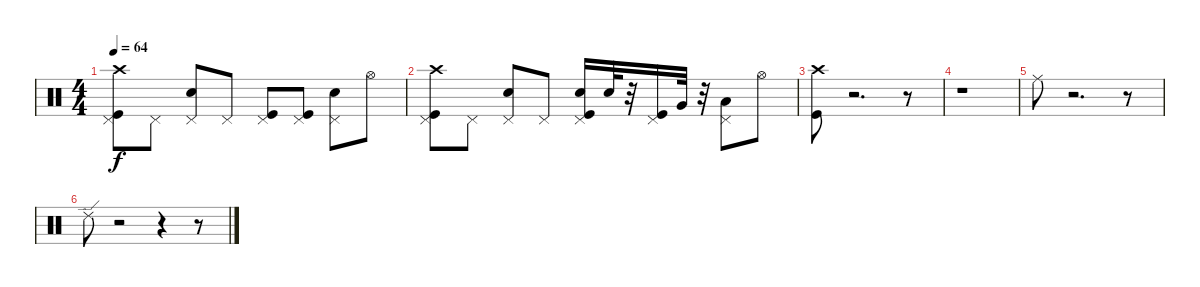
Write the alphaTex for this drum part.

\track "" {instrument percussion}
\staff {score}
\articulation defaults
\ts (4 4)
\tempo 64
\clef neutral
\ks c
("Crash high (hit)" "Kick (hit)" "Pedal Hi-Hat (hit)").8{dy f} "Pedal Hi-Hat (hit)".8 ("Snare (hit) 2" "Pedal Hi-Hat (hit)").8 "Pedal Hi-Hat (hit)".8 ("Kick (hit)" "Pedal Hi-Hat (hit)").8 ("Kick (hit)" "Pedal Hi-Hat (hit)").8 ("Snare (hit) 2" "Pedal Hi-Hat (hit)").8 "Hi-Hat (open)".8 |
("Crash high (hit)" "Kick (hit)" "Pedal Hi-Hat (hit)").8 "Pedal Hi-Hat (hit)".8 ("Snare (hit) 2" "Pedal Hi-Hat (hit)").8 "Pedal Hi-Hat (hit)".8 ("Snare (hit) 2" "Kick (hit)" "Pedal Hi-Hat (hit)").16 "Snare (hit) 2".32 r.32 ("Kick (hit)" "Pedal Hi-Hat (hit)").16 "Very Low Tom (hit)".32 r.32 ("Low Tom (hit)" "Pedal Hi-Hat (hit)").8 "Hi-Hat (open)".8 |
("Crash high (hit)" "Kick (hit)").8 r.2{d} r.8 |
r.1 |
"Ride (middle)".8 r.2{d} r.8 |
"Ride (edge) 2".8 r.2 r.4 r.8
